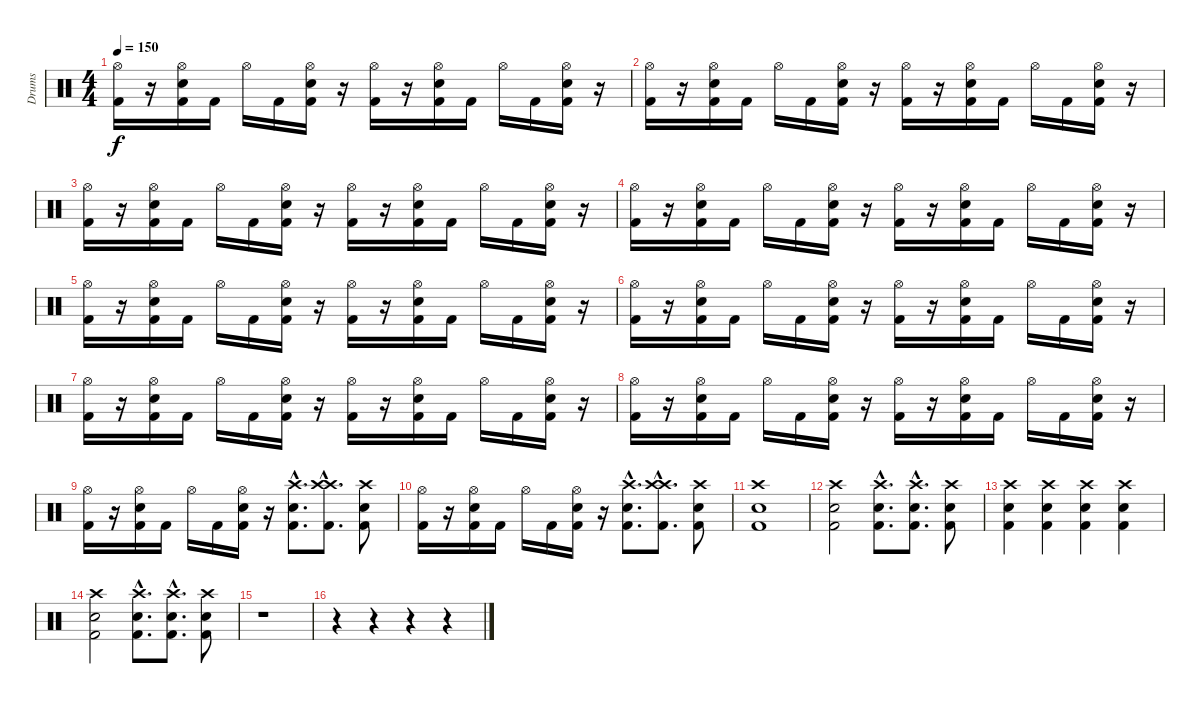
\track ("Drums" "Drums") {instrument percussion}
\staff {score}
\articulation defaults
\ts (4 4)
\tempo 150
\clef neutral
\ks c
("Hi-Hat (open)" "Kick (hit) 2").16{dy f} r.16 ("Hi-Hat (open)" "Electric Snare (hit)" "Kick (hit) 2").16 "Kick (hit) 2".16 "Hi-Hat (open)".16 "Kick (hit) 2".16 ("Hi-Hat (open)" "Electric Snare (hit)" "Kick (hit) 2").16 r.16 ("Hi-Hat (open)" "Kick (hit) 2").16 r.16 ("Hi-Hat (open)" "Electric Snare (hit)" "Kick (hit) 2").16 "Kick (hit) 2".16 "Hi-Hat (open)".16 "Kick (hit) 2".16 ("Hi-Hat (open)" "Electric Snare (hit)" "Kick (hit) 2").16 r.16 |
("Hi-Hat (open)" "Kick (hit) 2").16 r.16 ("Hi-Hat (open)" "Electric Snare (hit)" "Kick (hit) 2").16 "Kick (hit) 2".16 "Hi-Hat (open)".16 "Kick (hit) 2".16 ("Hi-Hat (open)" "Electric Snare (hit)" "Kick (hit) 2").16 r.16 ("Hi-Hat (open)" "Kick (hit) 2").16 r.16 ("Hi-Hat (open)" "Electric Snare (hit)" "Kick (hit) 2").16 "Kick (hit) 2".16 "Hi-Hat (open)".16 "Kick (hit) 2".16 ("Hi-Hat (open)" "Electric Snare (hit)" "Kick (hit) 2").16 r.16 |
("Hi-Hat (open)" "Kick (hit) 2").16 r.16 ("Hi-Hat (open)" "Electric Snare (hit)" "Kick (hit) 2").16 "Kick (hit) 2".16 "Hi-Hat (open)".16 "Kick (hit) 2".16 ("Hi-Hat (open)" "Electric Snare (hit)" "Kick (hit) 2").16 r.16 ("Hi-Hat (open)" "Kick (hit) 2").16 r.16 ("Hi-Hat (open)" "Electric Snare (hit)" "Kick (hit) 2").16 "Kick (hit) 2".16 "Hi-Hat (open)".16 "Kick (hit) 2".16 ("Hi-Hat (open)" "Electric Snare (hit)" "Kick (hit) 2").16 r.16 |
("Hi-Hat (open)" "Kick (hit) 2").16 r.16 ("Hi-Hat (open)" "Electric Snare (hit)" "Kick (hit) 2").16 "Kick (hit) 2".16 "Hi-Hat (open)".16 "Kick (hit) 2".16 ("Hi-Hat (open)" "Electric Snare (hit)" "Kick (hit) 2").16 r.16 ("Hi-Hat (open)" "Kick (hit) 2").16 r.16 ("Hi-Hat (open)" "Electric Snare (hit)" "Kick (hit) 2").16 "Kick (hit) 2".16 "Hi-Hat (open)".16 "Kick (hit) 2".16 ("Hi-Hat (open)" "Electric Snare (hit)" "Kick (hit) 2").16 r.16 |
("Hi-Hat (open)" "Kick (hit) 2").16 r.16 ("Hi-Hat (open)" "Electric Snare (hit)" "Kick (hit) 2").16 "Kick (hit) 2".16 "Hi-Hat (open)".16 "Kick (hit) 2".16 ("Hi-Hat (open)" "Electric Snare (hit)" "Kick (hit) 2").16 r.16 ("Hi-Hat (open)" "Kick (hit) 2").16 r.16 ("Hi-Hat (open)" "Electric Snare (hit)" "Kick (hit) 2").16 "Kick (hit) 2".16 "Hi-Hat (open)".16 "Kick (hit) 2".16 ("Hi-Hat (open)" "Electric Snare (hit)" "Kick (hit) 2").16 r.16 |
("Hi-Hat (open)" "Kick (hit) 2").16 r.16 ("Hi-Hat (open)" "Electric Snare (hit)" "Kick (hit) 2").16 "Kick (hit) 2".16 "Hi-Hat (open)".16 "Kick (hit) 2".16 ("Hi-Hat (open)" "Electric Snare (hit)" "Kick (hit) 2").16 r.16 ("Hi-Hat (open)" "Kick (hit) 2").16 r.16 ("Hi-Hat (open)" "Electric Snare (hit)" "Kick (hit) 2").16 "Kick (hit) 2".16 "Hi-Hat (open)".16 "Kick (hit) 2".16 ("Hi-Hat (open)" "Electric Snare (hit)" "Kick (hit) 2").16 r.16 |
("Hi-Hat (open)" "Kick (hit) 2").16 r.16 ("Hi-Hat (open)" "Electric Snare (hit)" "Kick (hit) 2").16 "Kick (hit) 2".16 "Hi-Hat (open)".16 "Kick (hit) 2".16 ("Hi-Hat (open)" "Electric Snare (hit)" "Kick (hit) 2").16 r.16 ("Hi-Hat (open)" "Kick (hit) 2").16 r.16 ("Hi-Hat (open)" "Electric Snare (hit)" "Kick (hit) 2").16 "Kick (hit) 2".16 "Hi-Hat (open)".16 "Kick (hit) 2".16 ("Hi-Hat (open)" "Electric Snare (hit)" "Kick (hit) 2").16 r.16 |
("Hi-Hat (open)" "Kick (hit) 2").16 r.16 ("Hi-Hat (open)" "Electric Snare (hit)" "Kick (hit) 2").16 "Kick (hit) 2".16 "Hi-Hat (open)".16 "Kick (hit) 2".16 ("Hi-Hat (open)" "Electric Snare (hit)" "Kick (hit) 2").16 r.16 ("Hi-Hat (open)" "Kick (hit) 2").16 r.16 ("Hi-Hat (open)" "Electric Snare (hit)" "Kick (hit) 2").16 "Kick (hit) 2".16 "Hi-Hat (open)".16 "Kick (hit) 2".16 ("Hi-Hat (open)" "Electric Snare (hit)" "Kick (hit) 2").16 r.16 |
("Hi-Hat (open)" "Kick (hit) 2").16 r.16 ("Hi-Hat (open)" "Electric Snare (hit)" "Kick (hit) 2").16 "Kick (hit) 2".16 "Hi-Hat (open)".16 "Kick (hit) 2".16 ("Hi-Hat (open)" "Electric Snare (hit)" "Kick (hit) 2").16 r.16 ("Crash high (hit)" "Kick (hit) 2"{hac} "Electric Snare (hit)"{hac}).8{d} ("Crash high (hit)"{hac} "Kick (hit) 2"{hac} "Crash high (hit)"{hac}).8{d} ("Crash high (hit)" "Kick (hit) 2" "Electric Snare (hit)").8 |
("Hi-Hat (open)" "Kick (hit) 2").16 r.16 ("Hi-Hat (open)" "Electric Snare (hit)" "Kick (hit) 2").16 "Kick (hit) 2".16 "Hi-Hat (open)".16 "Kick (hit) 2".16 ("Hi-Hat (open)" "Electric Snare (hit)" "Kick (hit) 2").16 r.16 ("Crash high (hit)" "Kick (hit) 2"{hac} "Electric Snare (hit)"{hac}).8{d} ("Crash high (hit)"{hac} "Kick (hit) 2"{hac} "Crash high (hit)"{hac}).8{d} ("Crash high (hit)" "Kick (hit) 2" "Electric Snare (hit)").8 |
("Electric Snare (hit)" "Kick (hit) 2" "Crash high (hit)").1 |
("Electric Snare (hit)" "Kick (hit) 2" "Crash high (hit)").2 ("Crash high (hit)"{hac} "Electric Snare (hit)"{hac} "Kick (hit) 2"{hac}).8{d} ("Crash high (hit)"{hac} "Electric Snare (hit)"{hac} "Kick (hit) 2"{hac}).8{d} ("Crash high (hit)" "Electric Snare (hit)" "Kick (hit) 2").8 |
("Crash high (hit)" "Electric Snare (hit)" "Kick (hit) 2").4 ("Crash high (hit)" "Electric Snare (hit)" "Kick (hit) 2").4 ("Crash high (hit)" "Electric Snare (hit)" "Kick (hit) 2").4 ("Crash high (hit)" "Electric Snare (hit)" "Kick (hit) 2").4 |
("Electric Snare (hit)" "Kick (hit) 2" "Crash high (hit)").2 ("Crash high (hit)"{hac} "Electric Snare (hit)"{hac} "Kick (hit) 2"{hac}).8{d} ("Crash high (hit)"{hac} "Electric Snare (hit)"{hac} "Kick (hit) 2"{hac}).8{d} ("Crash high (hit)" "Electric Snare (hit)" "Kick (hit) 2").8 |
r.1 |
r.4 r.4 r.4 r.4
